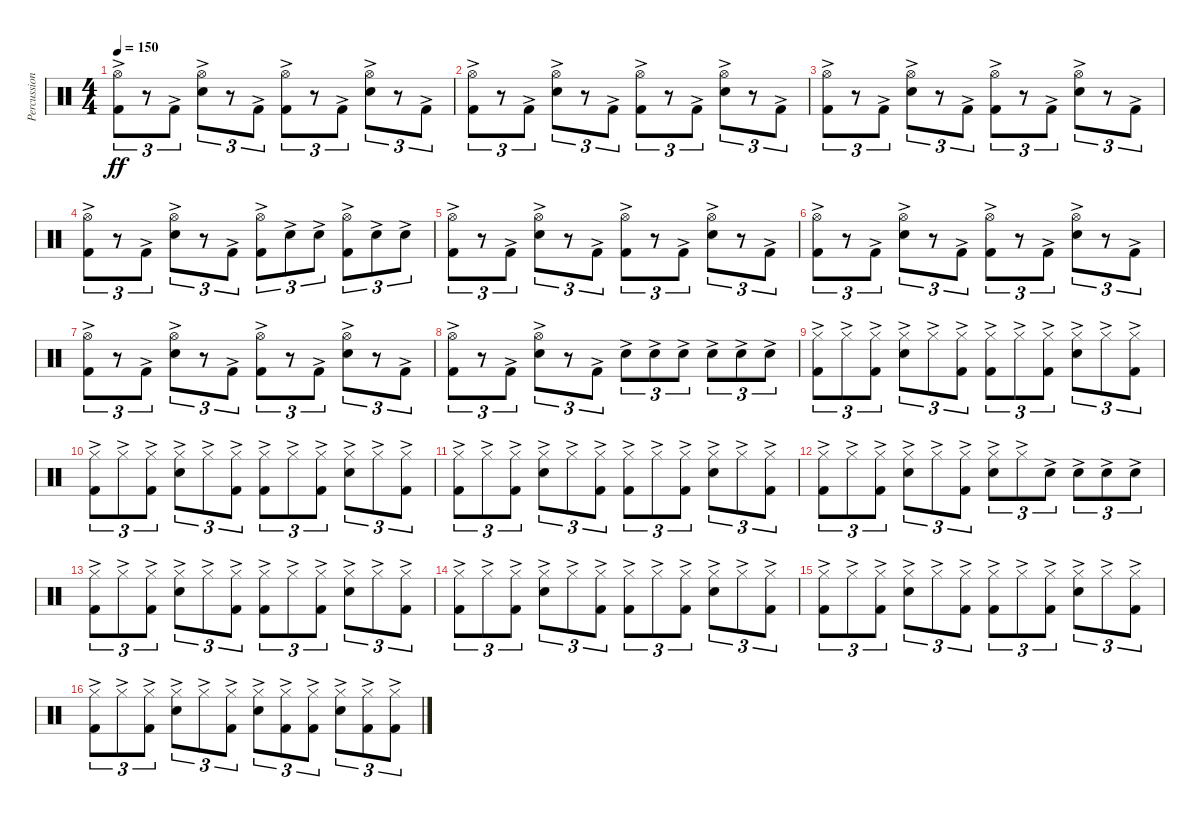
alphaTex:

\track ("Percussion" "Percussion") {instrument percussion}
\staff {score}
\articulation defaults
\ts (4 4)
\tempo 150
\clef neutral
\ks c
("Hi-Hat (open)"{ac} "Kick (hit) 2"{ac}).8{tu (3 2) dy ff} r.8{tu (3 2)} "Kick (hit) 2"{ac}.8{tu (3 2)} ("Hi-Hat (open)"{ac} "Snare (hit) 2"{ac}).8{tu (3 2)} r.8{tu (3 2)} "Kick (hit) 2"{ac}.8{tu (3 2)} ("Hi-Hat (open)"{ac} "Kick (hit) 2"{ac}).8{tu (3 2)} r.8{tu (3 2)} "Kick (hit) 2"{ac}.8{tu (3 2)} ("Hi-Hat (open)"{ac} "Snare (hit) 2"{ac}).8{tu (3 2)} r.8{tu (3 2)} "Kick (hit) 2"{ac}.8{tu (3 2)} |
("Hi-Hat (open)"{ac} "Kick (hit) 2"{ac}).8{tu (3 2)} r.8{tu (3 2)} "Kick (hit) 2"{ac}.8{tu (3 2)} ("Hi-Hat (open)"{ac} "Snare (hit) 2"{ac}).8{tu (3 2)} r.8{tu (3 2)} "Kick (hit) 2"{ac}.8{tu (3 2)} ("Hi-Hat (open)"{ac} "Kick (hit) 2"{ac}).8{tu (3 2)} r.8{tu (3 2)} "Kick (hit) 2"{ac}.8{tu (3 2)} ("Hi-Hat (open)"{ac} "Snare (hit) 2"{ac}).8{tu (3 2)} r.8{tu (3 2)} "Kick (hit) 2"{ac}.8{tu (3 2)} |
("Hi-Hat (open)"{ac} "Kick (hit) 2"{ac}).8{tu (3 2)} r.8{tu (3 2)} "Kick (hit) 2"{ac}.8{tu (3 2)} ("Hi-Hat (open)"{ac} "Snare (hit) 2"{ac}).8{tu (3 2)} r.8{tu (3 2)} "Kick (hit) 2"{ac}.8{tu (3 2)} ("Hi-Hat (open)"{ac} "Kick (hit) 2"{ac}).8{tu (3 2)} r.8{tu (3 2)} "Kick (hit) 2"{ac}.8{tu (3 2)} ("Hi-Hat (open)"{ac} "Snare (hit) 2"{ac}).8{tu (3 2)} r.8{tu (3 2)} "Kick (hit) 2"{ac}.8{tu (3 2)} |
("Hi-Hat (open)"{ac} "Kick (hit) 2"{ac}).8{tu (3 2)} r.8{tu (3 2)} "Kick (hit) 2"{ac}.8{tu (3 2)} ("Hi-Hat (open)"{ac} "Snare (hit) 2"{ac}).8{tu (3 2)} r.8{tu (3 2)} "Kick (hit) 2"{ac}.8{tu (3 2)} ("Hi-Hat (open)"{ac} "Kick (hit) 2"{ac}).8{tu (3 2)} "Snare (hit) 2"{ac}.8{tu (3 2)} "Snare (hit) 2"{ac}.8{tu (3 2)} ("Hi-Hat (open)"{ac} "Kick (hit) 2"{ac}).8{tu (3 2)} "Snare (hit) 2"{ac}.8{tu (3 2)} "Snare (hit) 2"{ac}.8{tu (3 2)} |
("Hi-Hat (open)"{ac} "Kick (hit) 2"{ac}).8{tu (3 2)} r.8{tu (3 2)} "Kick (hit) 2"{ac}.8{tu (3 2)} ("Hi-Hat (open)"{ac} "Snare (hit) 2"{ac}).8{tu (3 2)} r.8{tu (3 2)} "Kick (hit) 2"{ac}.8{tu (3 2)} ("Hi-Hat (open)"{ac} "Kick (hit) 2"{ac}).8{tu (3 2)} r.8{tu (3 2)} "Kick (hit) 2"{ac}.8{tu (3 2)} ("Hi-Hat (open)"{ac} "Snare (hit) 2"{ac}).8{tu (3 2)} r.8{tu (3 2)} "Kick (hit) 2"{ac}.8{tu (3 2)} |
("Hi-Hat (open)"{ac} "Kick (hit) 2"{ac}).8{tu (3 2)} r.8{tu (3 2)} "Kick (hit) 2"{ac}.8{tu (3 2)} ("Hi-Hat (open)"{ac} "Snare (hit) 2"{ac}).8{tu (3 2)} r.8{tu (3 2)} "Kick (hit) 2"{ac}.8{tu (3 2)} ("Hi-Hat (open)"{ac} "Kick (hit) 2"{ac}).8{tu (3 2)} r.8{tu (3 2)} "Kick (hit) 2"{ac}.8{tu (3 2)} ("Hi-Hat (open)"{ac} "Snare (hit) 2"{ac}).8{tu (3 2)} r.8{tu (3 2)} "Kick (hit) 2"{ac}.8{tu (3 2)} |
("Hi-Hat (open)"{ac} "Kick (hit) 2"{ac}).8{tu (3 2)} r.8{tu (3 2)} "Kick (hit) 2"{ac}.8{tu (3 2)} ("Hi-Hat (open)"{ac} "Snare (hit) 2"{ac}).8{tu (3 2)} r.8{tu (3 2)} "Kick (hit) 2"{ac}.8{tu (3 2)} ("Hi-Hat (open)"{ac} "Kick (hit) 2"{ac}).8{tu (3 2)} r.8{tu (3 2)} "Kick (hit) 2"{ac}.8{tu (3 2)} ("Hi-Hat (open)"{ac} "Snare (hit) 2"{ac}).8{tu (3 2)} r.8{tu (3 2)} "Kick (hit) 2"{ac}.8{tu (3 2)} |
("Hi-Hat (open)"{ac} "Kick (hit) 2"{ac}).8{tu (3 2)} r.8{tu (3 2)} "Kick (hit) 2"{ac}.8{tu (3 2)} ("Hi-Hat (open)"{ac} "Snare (hit) 2"{ac}).8{tu (3 2)} r.8{tu (3 2)} "Kick (hit) 2"{ac}.8{tu (3 2)} "Snare (hit) 2"{ac}.8{tu (3 2)} "Snare (hit) 2"{ac}.8{tu (3 2)} "Snare (hit) 2"{ac}.8{tu (3 2)} "Snare (hit) 2"{ac}.8{tu (3 2)} "Snare (hit) 2"{ac}.8{tu (3 2)} "Snare (hit) 2"{ac}.8{tu (3 2)} |
("Hi-Hat (closed)"{ac} "Kick (hit) 2"{ac}).8{tu (3 2)} "Hi-Hat (closed)"{ac}.8{tu (3 2)} ("Hi-Hat (closed)"{ac} "Kick (hit) 2"{ac}).8{tu (3 2)} ("Hi-Hat (closed)"{ac} "Snare (hit) 2"{ac}).8{tu (3 2)} "Hi-Hat (closed)"{ac}.8{tu (3 2)} ("Hi-Hat (closed)"{ac} "Kick (hit) 2"{ac}).8{tu (3 2)} ("Hi-Hat (closed)"{ac} "Kick (hit) 2"{ac}).8{tu (3 2)} "Hi-Hat (closed)"{ac}.8{tu (3 2)} ("Hi-Hat (closed)"{ac} "Kick (hit) 2"{ac}).8{tu (3 2)} ("Hi-Hat (closed)"{ac} "Snare (hit) 2"{ac}).8{tu (3 2)} "Hi-Hat (closed)"{ac}.8{tu (3 2)} ("Hi-Hat (closed)"{ac} "Kick (hit) 2"{ac}).8{tu (3 2)} |
("Hi-Hat (closed)"{ac} "Kick (hit) 2"{ac}).8{tu (3 2)} "Hi-Hat (closed)"{ac}.8{tu (3 2)} ("Hi-Hat (closed)"{ac} "Kick (hit) 2"{ac}).8{tu (3 2)} ("Hi-Hat (closed)"{ac} "Snare (hit) 2"{ac}).8{tu (3 2)} "Hi-Hat (closed)"{ac}.8{tu (3 2)} ("Hi-Hat (closed)"{ac} "Kick (hit) 2"{ac}).8{tu (3 2)} ("Hi-Hat (closed)"{ac} "Kick (hit) 2"{ac}).8{tu (3 2)} "Hi-Hat (closed)"{ac}.8{tu (3 2)} ("Hi-Hat (closed)"{ac} "Kick (hit) 2"{ac}).8{tu (3 2)} ("Hi-Hat (closed)"{ac} "Snare (hit) 2"{ac}).8{tu (3 2)} "Hi-Hat (closed)"{ac}.8{tu (3 2)} ("Hi-Hat (closed)"{ac} "Kick (hit) 2"{ac}).8{tu (3 2)} |
("Hi-Hat (closed)"{ac} "Kick (hit) 2"{ac}).8{tu (3 2)} "Hi-Hat (closed)"{ac}.8{tu (3 2)} ("Hi-Hat (closed)"{ac} "Kick (hit) 2"{ac}).8{tu (3 2)} ("Hi-Hat (closed)"{ac} "Snare (hit) 2"{ac}).8{tu (3 2)} "Hi-Hat (closed)"{ac}.8{tu (3 2)} ("Hi-Hat (closed)"{ac} "Kick (hit) 2"{ac}).8{tu (3 2)} ("Hi-Hat (closed)"{ac} "Kick (hit) 2"{ac}).8{tu (3 2)} "Hi-Hat (closed)"{ac}.8{tu (3 2)} ("Hi-Hat (closed)"{ac} "Kick (hit) 2"{ac}).8{tu (3 2)} ("Hi-Hat (closed)"{ac} "Snare (hit) 2"{ac}).8{tu (3 2)} "Hi-Hat (closed)"{ac}.8{tu (3 2)} ("Hi-Hat (closed)"{ac} "Kick (hit) 2"{ac}).8{tu (3 2)} |
("Hi-Hat (closed)"{ac} "Kick (hit) 2"{ac}).8{tu (3 2)} "Hi-Hat (closed)"{ac}.8{tu (3 2)} ("Hi-Hat (closed)"{ac} "Kick (hit) 2"{ac}).8{tu (3 2)} ("Hi-Hat (closed)"{ac} "Snare (hit) 2"{ac}).8{tu (3 2)} "Hi-Hat (closed)"{ac}.8{tu (3 2)} ("Hi-Hat (closed)"{ac} "Kick (hit) 2"{ac}).8{tu (3 2)} ("Hi-Hat (closed)"{ac} "Snare (hit) 2"{ac}).8{tu (3 2)} "Hi-Hat (closed)"{ac}.8{tu (3 2)} "Snare (hit) 2"{ac}.8{tu (3 2)} "Snare (hit) 2"{ac}.8{tu (3 2)} "Snare (hit) 2"{ac}.8{tu (3 2)} "Snare (hit) 2"{ac}.8{tu (3 2)} |
("Hi-Hat (closed)"{ac} "Kick (hit) 2"{ac}).8{tu (3 2)} "Hi-Hat (closed)"{ac}.8{tu (3 2)} ("Hi-Hat (closed)"{ac} "Kick (hit) 2"{ac}).8{tu (3 2)} ("Hi-Hat (closed)"{ac} "Snare (hit) 2"{ac}).8{tu (3 2)} "Hi-Hat (closed)"{ac}.8{tu (3 2)} ("Hi-Hat (closed)"{ac} "Kick (hit) 2"{ac}).8{tu (3 2)} ("Hi-Hat (closed)"{ac} "Kick (hit) 2"{ac}).8{tu (3 2)} "Hi-Hat (closed)"{ac}.8{tu (3 2)} ("Hi-Hat (closed)"{ac} "Kick (hit) 2"{ac}).8{tu (3 2)} ("Hi-Hat (closed)"{ac} "Snare (hit) 2"{ac}).8{tu (3 2)} "Hi-Hat (closed)"{ac}.8{tu (3 2)} ("Hi-Hat (closed)"{ac} "Kick (hit) 2"{ac}).8{tu (3 2)} |
("Hi-Hat (closed)"{ac} "Kick (hit) 2"{ac}).8{tu (3 2)} "Hi-Hat (closed)"{ac}.8{tu (3 2)} ("Hi-Hat (closed)"{ac} "Kick (hit) 2"{ac}).8{tu (3 2)} ("Hi-Hat (closed)"{ac} "Snare (hit) 2"{ac}).8{tu (3 2)} "Hi-Hat (closed)"{ac}.8{tu (3 2)} ("Hi-Hat (closed)"{ac} "Kick (hit) 2"{ac}).8{tu (3 2)} ("Hi-Hat (closed)"{ac} "Kick (hit) 2"{ac}).8{tu (3 2)} "Hi-Hat (closed)"{ac}.8{tu (3 2)} ("Hi-Hat (closed)"{ac} "Kick (hit) 2"{ac}).8{tu (3 2)} ("Hi-Hat (closed)"{ac} "Snare (hit) 2"{ac}).8{tu (3 2)} "Hi-Hat (closed)"{ac}.8{tu (3 2)} ("Hi-Hat (closed)"{ac} "Kick (hit) 2"{ac}).8{tu (3 2)} |
("Hi-Hat (closed)"{ac} "Kick (hit) 2"{ac}).8{tu (3 2)} "Hi-Hat (closed)"{ac}.8{tu (3 2)} ("Hi-Hat (closed)"{ac} "Kick (hit) 2"{ac}).8{tu (3 2)} ("Hi-Hat (closed)"{ac} "Snare (hit) 2"{ac}).8{tu (3 2)} "Hi-Hat (closed)"{ac}.8{tu (3 2)} ("Hi-Hat (closed)"{ac} "Kick (hit) 2"{ac}).8{tu (3 2)} ("Hi-Hat (closed)"{ac} "Kick (hit) 2"{ac}).8{tu (3 2)} "Hi-Hat (closed)"{ac}.8{tu (3 2)} ("Hi-Hat (closed)"{ac} "Kick (hit) 2"{ac}).8{tu (3 2)} ("Hi-Hat (closed)"{ac} "Snare (hit) 2"{ac}).8{tu (3 2)} "Hi-Hat (closed)"{ac}.8{tu (3 2)} ("Hi-Hat (closed)"{ac} "Kick (hit) 2"{ac}).8{tu (3 2)} |
("Hi-Hat (closed)"{ac} "Kick (hit) 2"{ac}).8{tu (3 2)} "Hi-Hat (closed)"{ac}.8{tu (3 2)} ("Hi-Hat (closed)"{ac} "Kick (hit) 2"{ac}).8{tu (3 2)} ("Hi-Hat (closed)"{ac} "Snare (hit) 2"{ac}).8{tu (3 2)} "Hi-Hat (closed)"{ac}.8{tu (3 2)} ("Hi-Hat (closed)"{ac} "Kick (hit) 2"{ac}).8{tu (3 2)} ("Hi-Hat (closed)"{ac} "Snare (hit) 2"{ac}).8{tu (3 2)} ("Hi-Hat (closed)"{ac} "Kick (hit) 2"{ac}).8{tu (3 2)} ("Hi-Hat (closed)"{ac} "Kick (hit) 2"{ac}).8{tu (3 2)} ("Hi-Hat (closed)"{ac} "Snare (hit) 2"{ac}).8{tu (3 2)} ("Hi-Hat (closed)"{ac} "Kick (hit) 2"{ac}).8{tu (3 2)} ("Hi-Hat (closed)"{ac} "Kick (hit) 2"{ac}).8{tu (3 2)}
